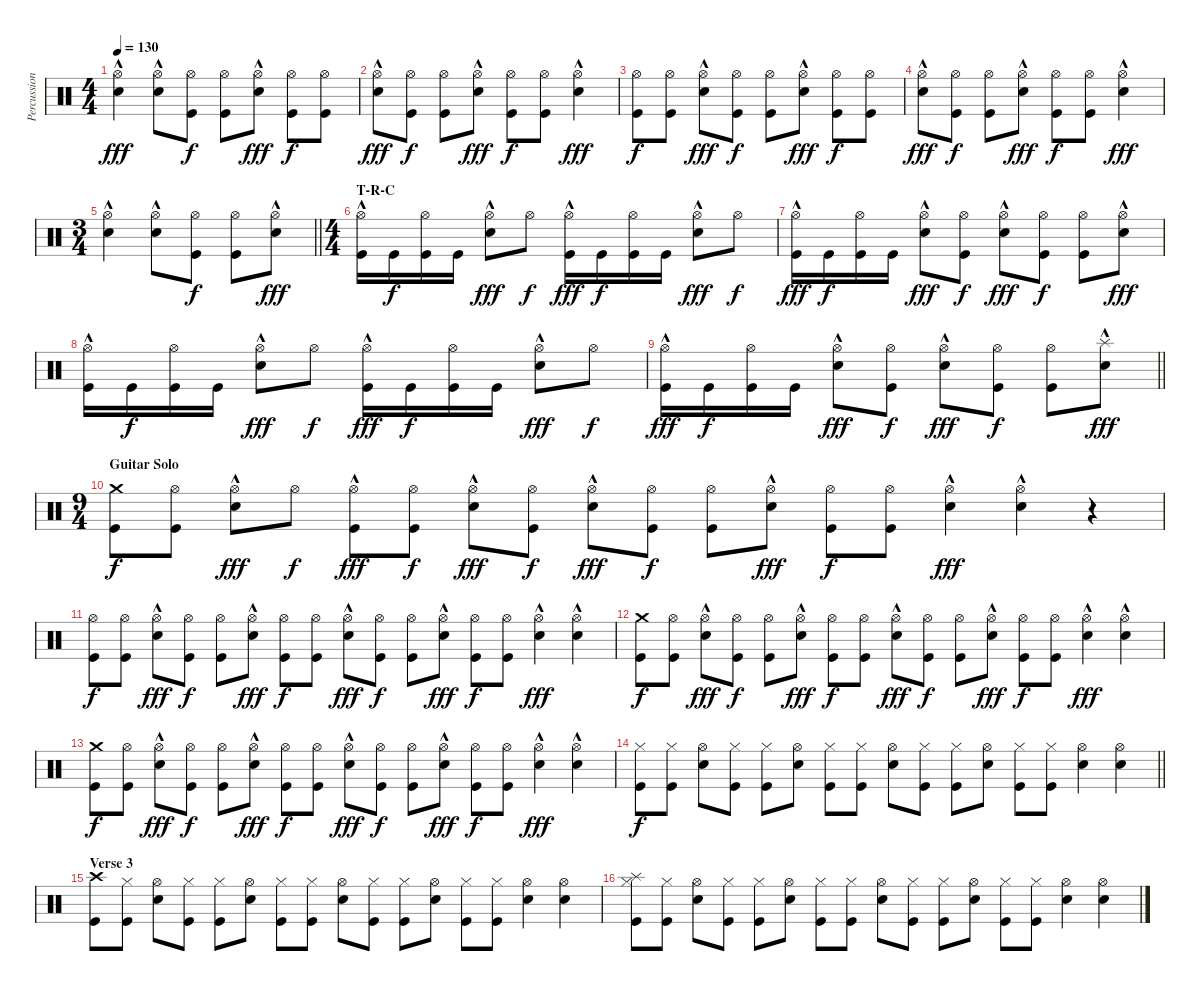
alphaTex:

\track ("Percussion" "Percussion") {instrument percussion}
\staff {score}
\articulation defaults
\ts (4 4)
\tempo 130
\clef neutral
\ks c
("Snare (hit) 2"{hac} "Hi-Hat (open)").4{dy fff} ("Snare (hit) 2" "Hi-Hat (open)"{hac}).8 ("Hi-Hat (open)" "Kick (hit)").8{dy f} ("Hi-Hat (open)" "Kick (hit)").8 ("Snare (hit) 2" "Hi-Hat (open)"{hac}).8{dy fff} ("Hi-Hat (open)" "Kick (hit)").8{dy f} ("Hi-Hat (open)" "Kick (hit)").8 |
("Snare (hit) 2" "Hi-Hat (open)"{hac}).8{dy fff} ("Hi-Hat (open)" "Kick (hit)").8{dy f} ("Hi-Hat (open)" "Kick (hit)").8 ("Snare (hit) 2" "Hi-Hat (open)"{hac}).8{dy fff} ("Hi-Hat (open)" "Kick (hit)").8{dy f} ("Hi-Hat (open)" "Kick (hit)").8 ("Snare (hit) 2" "Hi-Hat (open)"{hac}).4{dy fff} |
("Hi-Hat (open)" "Kick (hit)").8{dy f} ("Hi-Hat (open)" "Kick (hit)").8 ("Snare (hit) 2" "Hi-Hat (open)"{hac}).8{dy fff} ("Hi-Hat (open)" "Kick (hit)").8{dy f} ("Hi-Hat (open)" "Kick (hit)").8 ("Snare (hit) 2" "Hi-Hat (open)"{hac}).8{dy fff} ("Hi-Hat (open)" "Kick (hit)").8{dy f} ("Hi-Hat (open)" "Kick (hit)").8 |
("Snare (hit) 2" "Hi-Hat (open)"{hac}).8{dy fff} ("Hi-Hat (open)" "Kick (hit)").8{dy f} ("Hi-Hat (open)" "Kick (hit)").8 ("Snare (hit) 2" "Hi-Hat (open)"{hac}).8{dy fff} ("Hi-Hat (open)" "Kick (hit)").8{dy f} ("Hi-Hat (open)" "Kick (hit)").8 ("Snare (hit) 2" "Hi-Hat (open)"{hac}).4{dy fff} |
\ts (3 4)
\barLineRight lightlight
("Snare (hit) 2" "Hi-Hat (open)"{hac}).4 ("Snare (hit) 2" "Hi-Hat (open)"{hac}).8 ("Hi-Hat (open)" "Kick (hit)").8{dy f} ("Hi-Hat (open)" "Kick (hit)").8 ("Snare (hit) 2" "Hi-Hat (open)"{hac}).8{dy fff} |
\ts (4 4)
\section ("" "T-R-C")
("Hi-Hat (open)"{hac} "Kick (hit)").16 "Kick (hit)".16{dy f} ("Hi-Hat (open)" "Kick (hit)").16 "Kick (hit)".16 ("Snare (hit) 2" "Hi-Hat (open)"{hac}).8{dy fff} "Hi-Hat (open)".8{dy f} ("Hi-Hat (open)"{hac} "Kick (hit)").16{dy fff} "Kick (hit)".16{dy f} ("Hi-Hat (open)" "Kick (hit)").16 "Kick (hit)".16 ("Snare (hit) 2" "Hi-Hat (open)"{hac}).8{dy fff} "Hi-Hat (open)".8{dy f} |
("Hi-Hat (open)"{hac} "Kick (hit)").16{dy fff} "Kick (hit)".16{dy f} ("Hi-Hat (open)" "Kick (hit)").16 "Kick (hit)".16 ("Snare (hit) 2" "Hi-Hat (open)"{hac}).8{dy fff} ("Hi-Hat (open)" "Kick (hit)").8{dy f} ("Snare (hit) 2" "Hi-Hat (open)"{hac}).8{dy fff} ("Hi-Hat (open)" "Kick (hit)").8{dy f} ("Hi-Hat (open)" "Kick (hit)").8 ("Snare (hit) 2" "Hi-Hat (open)"{hac}).8{dy fff} |
("Hi-Hat (open)"{hac} "Kick (hit)").16 "Kick (hit)".16{dy f} ("Hi-Hat (open)" "Kick (hit)").16 "Kick (hit)".16 ("Snare (hit) 2" "Hi-Hat (open)"{hac}).8{dy fff} "Hi-Hat (open)".8{dy f} ("Hi-Hat (open)"{hac} "Kick (hit)").16{dy fff} "Kick (hit)".16{dy f} ("Hi-Hat (open)" "Kick (hit)").16 "Kick (hit)".16 ("Snare (hit) 2" "Hi-Hat (open)"{hac}).8{dy fff} "Hi-Hat (open)".8{dy f} |
\barLineRight lightlight
("Hi-Hat (open)"{hac} "Kick (hit)").16{dy fff} "Kick (hit)".16{dy f} ("Hi-Hat (open)" "Kick (hit)").16 "Kick (hit)".16 ("Snare (hit) 2" "Hi-Hat (open)"{hac}).8{dy fff} ("Hi-Hat (open)" "Kick (hit)").8{dy f} ("Snare (hit) 2" "Hi-Hat (open)"{hac}).8{dy fff} ("Hi-Hat (open)" "Kick (hit)").8{dy f} ("Hi-Hat (open)" "Kick (hit)").8 ("Snare (hit) 2" "Splash (hit)"{hac}).8{dy fff} |
\ts (9 4)
\section ("" "Guitar Solo")
("Kick (hit)" "Crash medium (hit)").8{dy f} ("Hi-Hat (open)" "Kick (hit)").8 ("Snare (hit) 2" "Hi-Hat (open)"{hac}).8{dy fff} "Hi-Hat (open)".8{dy f} ("Hi-Hat (open)"{hac} "Kick (hit)").8{dy fff} ("Hi-Hat (open)" "Kick (hit)").8{dy f} ("Snare (hit) 2" "Hi-Hat (open)"{hac}).8{dy fff} ("Hi-Hat (open)" "Kick (hit)").8{dy f} ("Snare (hit) 2" "Hi-Hat (open)"{hac}).8{dy fff} ("Hi-Hat (open)" "Kick (hit)").8{dy f} ("Hi-Hat (open)" "Kick (hit)").8 ("Snare (hit) 2" "Hi-Hat (open)"{hac}).8{dy fff} ("Hi-Hat (open)" "Kick (hit)").8{dy f} ("Hi-Hat (open)" "Kick (hit)").8 ("Snare (hit) 2" "Hi-Hat (open)"{hac}).4{dy fff} ("Snare (hit) 2" "Hi-Hat (open)"{hac}).4 r.4 |
("Hi-Hat (open)" "Kick (hit)").8{dy f} ("Hi-Hat (open)" "Kick (hit)").8 ("Snare (hit) 2" "Hi-Hat (open)"{hac}).8{dy fff} ("Hi-Hat (open)" "Kick (hit)").8{dy f} ("Hi-Hat (open)" "Kick (hit)").8 ("Snare (hit) 2" "Hi-Hat (open)"{hac}).8{dy fff} ("Hi-Hat (open)" "Kick (hit)").8{dy f} ("Hi-Hat (open)" "Kick (hit)").8 ("Snare (hit) 2" "Hi-Hat (open)"{hac}).8{dy fff} ("Hi-Hat (open)" "Kick (hit)").8{dy f} ("Hi-Hat (open)" "Kick (hit)").8 ("Snare (hit) 2" "Hi-Hat (open)"{hac}).8{dy fff} ("Hi-Hat (open)" "Kick (hit)").8{dy f} ("Hi-Hat (open)" "Kick (hit)").8 ("Snare (hit) 2" "Hi-Hat (open)"{hac}).4{dy fff} ("Snare (hit) 2" "Hi-Hat (open)"{hac}).4 |
("Kick (hit)" "Crash medium (hit)").8{dy f} ("Hi-Hat (open)" "Kick (hit)").8 ("Snare (hit) 2" "Hi-Hat (open)"{hac}).8{dy fff} ("Hi-Hat (open)" "Kick (hit)").8{dy f} ("Hi-Hat (open)" "Kick (hit)").8 ("Snare (hit) 2" "Hi-Hat (open)"{hac}).8{dy fff} ("Hi-Hat (open)" "Kick (hit)").8{dy f} ("Hi-Hat (open)" "Kick (hit)").8 ("Snare (hit) 2" "Hi-Hat (open)"{hac}).8{dy fff} ("Hi-Hat (open)" "Kick (hit)").8{dy f} ("Hi-Hat (open)" "Kick (hit)").8 ("Snare (hit) 2" "Hi-Hat (open)"{hac}).8{dy fff} ("Hi-Hat (open)" "Kick (hit)").8{dy f} ("Hi-Hat (open)" "Kick (hit)").8 ("Snare (hit) 2" "Hi-Hat (open)"{hac}).4{dy fff} ("Snare (hit) 2" "Hi-Hat (open)"{hac}).4 |
("Kick (hit)" "Crash medium (hit)").8{dy f} ("Hi-Hat (open)" "Kick (hit)").8 ("Snare (hit) 2" "Hi-Hat (open)"{hac}).8{dy fff} ("Hi-Hat (open)" "Kick (hit)").8{dy f} ("Hi-Hat (open)" "Kick (hit)").8 ("Snare (hit) 2" "Hi-Hat (open)"{hac}).8{dy fff} ("Hi-Hat (open)" "Kick (hit)").8{dy f} ("Hi-Hat (open)" "Kick (hit)").8 ("Snare (hit) 2" "Hi-Hat (open)"{hac}).8{dy fff} ("Hi-Hat (open)" "Kick (hit)").8{dy f} ("Hi-Hat (open)" "Kick (hit)").8 ("Snare (hit) 2" "Hi-Hat (open)"{hac}).8{dy fff} ("Hi-Hat (open)" "Kick (hit)").8{dy f} ("Hi-Hat (open)" "Kick (hit)").8 ("Snare (hit) 2" "Hi-Hat (open)"{hac}).4{dy fff} ("Snare (hit) 2" "Hi-Hat (open)"{hac}).4 |
\barLineRight lightlight
("Hi-Hat (closed)" "Kick (hit)").8{dy f} ("Hi-Hat (closed)" "Kick (hit)").8 ("Snare (hit) 2" "Hi-Hat (open)").8 ("Hi-Hat (closed)" "Kick (hit)").8 ("Hi-Hat (closed)" "Kick (hit)").8 ("Snare (hit) 2" "Hi-Hat (open)").8 ("Hi-Hat (closed)" "Kick (hit)").8 ("Hi-Hat (closed)" "Kick (hit)").8 ("Snare (hit) 2" "Hi-Hat (open)").8 ("Hi-Hat (closed)" "Kick (hit)").8 ("Hi-Hat (closed)" "Kick (hit)").8 ("Snare (hit) 2" "Hi-Hat (open)").8 ("Hi-Hat (closed)" "Kick (hit)").8 ("Hi-Hat (closed)" "Kick (hit)").8 ("Snare (hit) 2" "Hi-Hat (open)").4 ("Snare (hit) 2" "Hi-Hat (open)").4 |
\section ("" "Verse 3")
("Kick (hit)" "Crash high (hit)").8 ("Hi-Hat (closed)" "Kick (hit)").8 ("Snare (hit) 2" "Hi-Hat (open)").8 ("Hi-Hat (closed)" "Kick (hit)").8 ("Hi-Hat (closed)" "Kick (hit)").8 ("Snare (hit) 2" "Hi-Hat (open)").8 ("Hi-Hat (closed)" "Kick (hit)").8 ("Hi-Hat (closed)" "Kick (hit)").8 ("Snare (hit) 2" "Hi-Hat (open)").8 ("Hi-Hat (closed)" "Kick (hit)").8 ("Hi-Hat (closed)" "Kick (hit)").8 ("Snare (hit) 2" "Hi-Hat (open)").8 ("Hi-Hat (closed)" "Kick (hit)").8 ("Hi-Hat (closed)" "Kick (hit)").8 ("Snare (hit) 2" "Hi-Hat (open)").4 ("Snare (hit) 2" "Hi-Hat (open)").4 |
("Hi-Hat (closed)" "Kick (hit)" "Splash (hit)").8 ("Hi-Hat (closed)" "Kick (hit)").8 ("Snare (hit) 2" "Hi-Hat (open)").8 ("Hi-Hat (closed)" "Kick (hit)").8 ("Hi-Hat (closed)" "Kick (hit)").8 ("Snare (hit) 2" "Hi-Hat (open)").8 ("Hi-Hat (closed)" "Kick (hit)").8 ("Hi-Hat (closed)" "Kick (hit)").8 ("Snare (hit) 2" "Hi-Hat (open)").8 ("Hi-Hat (closed)" "Kick (hit)").8 ("Hi-Hat (closed)" "Kick (hit)").8 ("Snare (hit) 2" "Hi-Hat (open)").8 ("Hi-Hat (closed)" "Kick (hit)").8 ("Hi-Hat (closed)" "Kick (hit)").8 ("Snare (hit) 2" "Hi-Hat (open)").4 ("Snare (hit) 2" "Hi-Hat (open)").4
